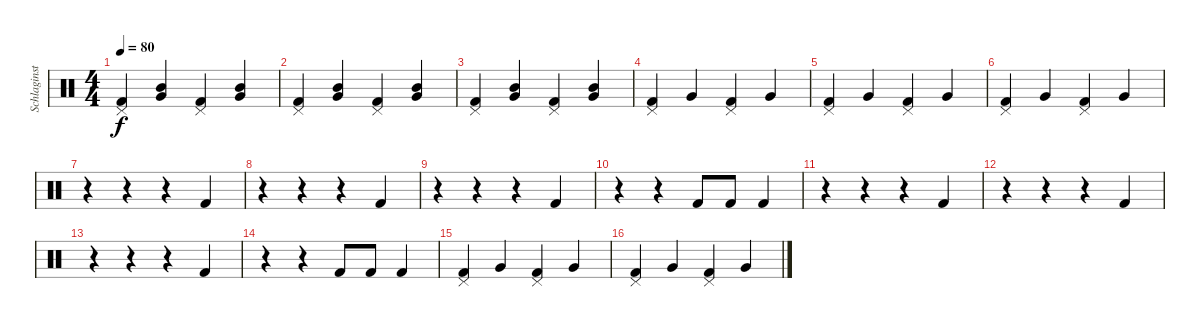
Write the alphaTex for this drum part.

\track ("Schlaginstrumente - Auswahl" "Schlaginst") {instrument percussion}
\staff {score}
\articulation defaults
\ts (4 4)
\tempo 80
\clef neutral
\ks c
("Kick (hit) 2" "Pedal Hi-Hat (hit)").4{dy f} ("Very Low Tom (hit)" "Mid Tom (hit)").4 ("Kick (hit) 2" "Pedal Hi-Hat (hit)").4 ("Very Low Tom (hit)" "Mid Tom (hit)").4 |
("Kick (hit) 2" "Pedal Hi-Hat (hit)").4 ("Very Low Tom (hit)" "Mid Tom (hit)").4 ("Kick (hit) 2" "Pedal Hi-Hat (hit)").4 ("Very Low Tom (hit)" "Mid Tom (hit)").4 |
("Kick (hit) 2" "Pedal Hi-Hat (hit)").4 ("Very Low Tom (hit)" "Mid Tom (hit)").4 ("Kick (hit) 2" "Pedal Hi-Hat (hit)").4 ("Very Low Tom (hit)" "Mid Tom (hit)").4 |
("Kick (hit) 2" "Pedal Hi-Hat (hit)").4 "Very Low Tom (hit)".4 ("Kick (hit) 2" "Pedal Hi-Hat (hit)").4 "Very Low Tom (hit)".4 |
("Kick (hit) 2" "Pedal Hi-Hat (hit)").4 "Very Low Tom (hit)".4 ("Kick (hit) 2" "Pedal Hi-Hat (hit)").4 "Very Low Tom (hit)".4 |
("Kick (hit) 2" "Pedal Hi-Hat (hit)").4 "Very Low Tom (hit)".4 ("Kick (hit) 2" "Pedal Hi-Hat (hit)").4 "Very Low Tom (hit)".4 |
r.4 r.4 r.4 "Kick (hit) 2".4 |
r.4 r.4 r.4 "Kick (hit) 2".4 |
r.4 r.4 r.4 "Kick (hit) 2".4 |
r.4 r.4 "Kick (hit) 2".8 "Kick (hit) 2".8 "Kick (hit) 2".4 |
r.4 r.4 r.4 "Kick (hit) 2".4 |
r.4 r.4 r.4 "Kick (hit) 2".4 |
r.4 r.4 r.4 "Kick (hit) 2".4 |
r.4 r.4 "Kick (hit) 2".8 "Kick (hit) 2".8 "Kick (hit) 2".4 |
("Kick (hit) 2" "Pedal Hi-Hat (hit)").4 "Very Low Tom (hit)".4 ("Kick (hit) 2" "Pedal Hi-Hat (hit)").4 "Very Low Tom (hit)".4 |
("Kick (hit) 2" "Pedal Hi-Hat (hit)").4 "Very Low Tom (hit)".4 ("Kick (hit) 2" "Pedal Hi-Hat (hit)").4 "Very Low Tom (hit)".4
